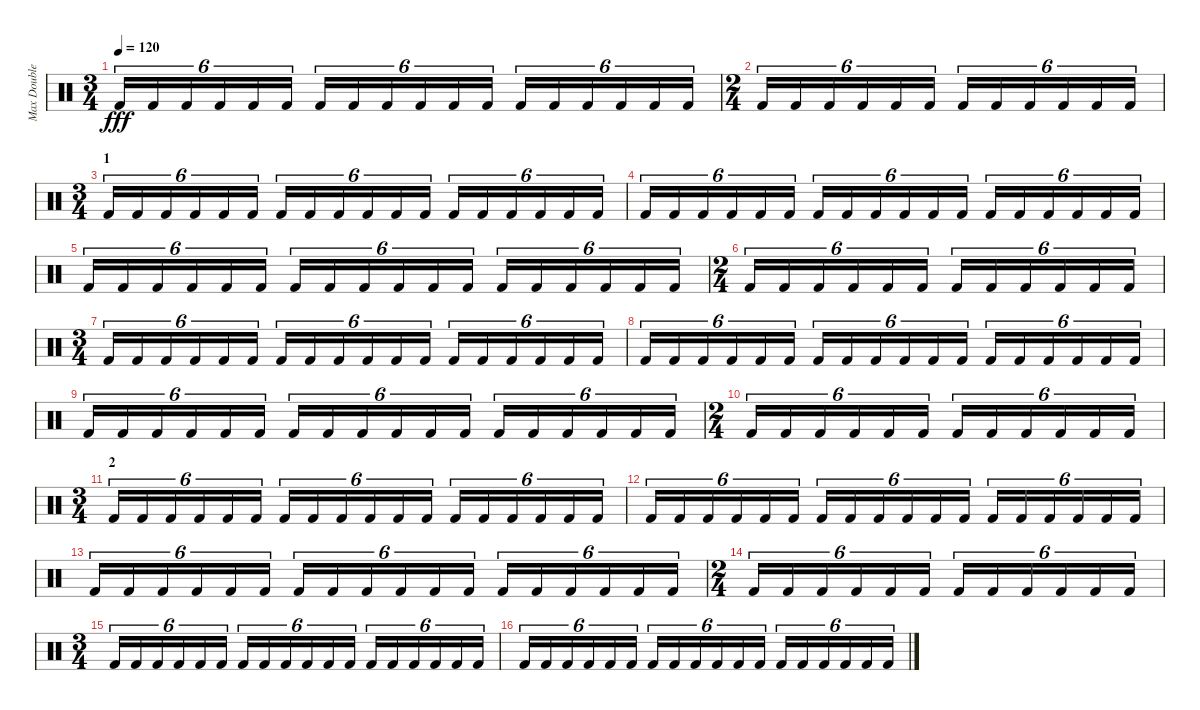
\track ("Max Double Pedal" "Max Double") {instrument percussion}
\staff {score}
\articulation defaults
\ts (3 4)
\tempo 120
\clef neutral
\ks c "Kick (hit) 2".16{tu (6 4) dy fff} "Kick (hit) 2".16{tu (6 4)} "Kick (hit) 2".16{tu (6 4)} "Kick (hit) 2".16{tu (6 4)} "Kick (hit) 2".16{tu (6 4)} "Kick (hit) 2".16{tu (6 4)} "Kick (hit) 2".16{tu (6 4)} "Kick (hit) 2".16{tu (6 4)} "Kick (hit) 2".16{tu (6 4)} "Kick (hit) 2".16{tu (6 4)} "Kick (hit) 2".16{tu (6 4)} "Kick (hit) 2".16{tu (6 4)} "Kick (hit) 2".16{tu (6 4)} "Kick (hit) 2".16{tu (6 4)} "Kick (hit) 2".16{tu (6 4)} "Kick (hit) 2".16{tu (6 4)} "Kick (hit) 2".16{tu (6 4)} "Kick (hit) 2".16{tu (6 4)}
|
\ts (2 4)
"Kick (hit) 2".16{tu (6 4)} "Kick (hit) 2".16{tu (6 4)} "Kick (hit) 2".16{tu (6 4)} "Kick (hit) 2".16{tu (6 4)} "Kick (hit) 2".16{tu (6 4)} "Kick (hit) 2".16{tu (6 4)} "Kick (hit) 2".16{tu (6 4)} "Kick (hit) 2".16{tu (6 4)} "Kick (hit) 2".16{tu (6 4)} "Kick (hit) 2".16{tu (6 4)} "Kick (hit) 2".16{tu (6 4)} "Kick (hit) 2".16{tu (6 4)} |
\ts (3 4)
\section ("" "1")
"Kick (hit) 2".16{tu (6 4)} "Kick (hit) 2".16{tu (6 4)} "Kick (hit) 2".16{tu (6 4)} "Kick (hit) 2".16{tu (6 4)} "Kick (hit) 2".16{tu (6 4)} "Kick (hit) 2".16{tu (6 4)} "Kick (hit) 2".16{tu (6 4)} "Kick (hit) 2".16{tu (6 4)} "Kick (hit) 2".16{tu (6 4)} "Kick (hit) 2".16{tu (6 4)} "Kick (hit) 2".16{tu (6 4)} "Kick (hit) 2".16{tu (6 4)} "Kick (hit) 2".16{tu (6 4)} "Kick (hit) 2".16{tu (6 4)} "Kick (hit) 2".16{tu (6 4)} "Kick (hit) 2".16{tu (6 4)} "Kick (hit) 2".16{tu (6 4)} "Kick (hit) 2".16{tu (6 4)} |
"Kick (hit) 2".16{tu (6 4)} "Kick (hit) 2".16{tu (6 4)} "Kick (hit) 2".16{tu (6 4)} "Kick (hit) 2".16{tu (6 4)} "Kick (hit) 2".16{tu (6 4)} "Kick (hit) 2".16{tu (6 4)} "Kick (hit) 2".16{tu (6 4)} "Kick (hit) 2".16{tu (6 4)} "Kick (hit) 2".16{tu (6 4)} "Kick (hit) 2".16{tu (6 4)} "Kick (hit) 2".16{tu (6 4)} "Kick (hit) 2".16{tu (6 4)} "Kick (hit) 2".16{tu (6 4)} "Kick (hit) 2".16{tu (6 4)} "Kick (hit) 2".16{tu (6 4)} "Kick (hit) 2".16{tu (6 4)} "Kick (hit) 2".16{tu (6 4)} "Kick (hit) 2".16{tu (6 4)} |
"Kick (hit) 2".16{tu (6 4)} "Kick (hit) 2".16{tu (6 4)} "Kick (hit) 2".16{tu (6 4)} "Kick (hit) 2".16{tu (6 4)} "Kick (hit) 2".16{tu (6 4)} "Kick (hit) 2".16{tu (6 4)} "Kick (hit) 2".16{tu (6 4)} "Kick (hit) 2".16{tu (6 4)} "Kick (hit) 2".16{tu (6 4)} "Kick (hit) 2".16{tu (6 4)} "Kick (hit) 2".16{tu (6 4)} "Kick (hit) 2".16{tu (6 4)} "Kick (hit) 2".16{tu (6 4)} "Kick (hit) 2".16{tu (6 4)} "Kick (hit) 2".16{tu (6 4)} "Kick (hit) 2".16{tu (6 4)} "Kick (hit) 2".16{tu (6 4)} "Kick (hit) 2".16{tu (6 4)} |
\ts (2 4)
"Kick (hit) 2".16{tu (6 4)} "Kick (hit) 2".16{tu (6 4)} "Kick (hit) 2".16{tu (6 4)} "Kick (hit) 2".16{tu (6 4)} "Kick (hit) 2".16{tu (6 4)} "Kick (hit) 2".16{tu (6 4)} "Kick (hit) 2".16{tu (6 4)} "Kick (hit) 2".16{tu (6 4)} "Kick (hit) 2".16{tu (6 4)} "Kick (hit) 2".16{tu (6 4)} "Kick (hit) 2".16{tu (6 4)} "Kick (hit) 2".16{tu (6 4)} |
\ts (3 4)
"Kick (hit) 2".16{tu (6 4)} "Kick (hit) 2".16{tu (6 4)} "Kick (hit) 2".16{tu (6 4)} "Kick (hit) 2".16{tu (6 4)} "Kick (hit) 2".16{tu (6 4)} "Kick (hit) 2".16{tu (6 4)} "Kick (hit) 2".16{tu (6 4)} "Kick (hit) 2".16{tu (6 4)} "Kick (hit) 2".16{tu (6 4)} "Kick (hit) 2".16{tu (6 4)} "Kick (hit) 2".16{tu (6 4)} "Kick (hit) 2".16{tu (6 4)} "Kick (hit) 2".16{tu (6 4)} "Kick (hit) 2".16{tu (6 4)} "Kick (hit) 2".16{tu (6 4)} "Kick (hit) 2".16{tu (6 4)} "Kick (hit) 2".16{tu (6 4)} "Kick (hit) 2".16{tu (6 4)} |
"Kick (hit) 2".16{tu (6 4)} "Kick (hit) 2".16{tu (6 4)} "Kick (hit) 2".16{tu (6 4)} "Kick (hit) 2".16{tu (6 4)} "Kick (hit) 2".16{tu (6 4)} "Kick (hit) 2".16{tu (6 4)} "Kick (hit) 2".16{tu (6 4)} "Kick (hit) 2".16{tu (6 4)} "Kick (hit) 2".16{tu (6 4)} "Kick (hit) 2".16{tu (6 4)} "Kick (hit) 2".16{tu (6 4)} "Kick (hit) 2".16{tu (6 4)} "Kick (hit) 2".16{tu (6 4)} "Kick (hit) 2".16{tu (6 4)} "Kick (hit) 2".16{tu (6 4)} "Kick (hit) 2".16{tu (6 4)} "Kick (hit) 2".16{tu (6 4)} "Kick (hit) 2".16{tu (6 4)} |
"Kick (hit) 2".16{tu (6 4)} "Kick (hit) 2".16{tu (6 4)} "Kick (hit) 2".16{tu (6 4)} "Kick (hit) 2".16{tu (6 4)} "Kick (hit) 2".16{tu (6 4)} "Kick (hit) 2".16{tu (6 4)} "Kick (hit) 2".16{tu (6 4)} "Kick (hit) 2".16{tu (6 4)} "Kick (hit) 2".16{tu (6 4)} "Kick (hit) 2".16{tu (6 4)} "Kick (hit) 2".16{tu (6 4)} "Kick (hit) 2".16{tu (6 4)} "Kick (hit) 2".16{tu (6 4)} "Kick (hit) 2".16{tu (6 4)} "Kick (hit) 2".16{tu (6 4)} "Kick (hit) 2".16{tu (6 4)} "Kick (hit) 2".16{tu (6 4)} "Kick (hit) 2".16{tu (6 4)} |
\ts (2 4)
"Kick (hit) 2".16{tu (6 4)} "Kick (hit) 2".16{tu (6 4)} "Kick (hit) 2".16{tu (6 4)} "Kick (hit) 2".16{tu (6 4)} "Kick (hit) 2".16{tu (6 4)} "Kick (hit) 2".16{tu (6 4)} "Kick (hit) 2".16{tu (6 4)} "Kick (hit) 2".16{tu (6 4)} "Kick (hit) 2".16{tu (6 4)} "Kick (hit) 2".16{tu (6 4)} "Kick (hit) 2".16{tu (6 4)} "Kick (hit) 2".16{tu (6 4)} |
\ts (3 4)
\section ("" "2")
"Kick (hit) 2".16{tu (6 4)} "Kick (hit) 2".16{tu (6 4)} "Kick (hit) 2".16{tu (6 4)} "Kick (hit) 2".16{tu (6 4)} "Kick (hit) 2".16{tu (6 4)} "Kick (hit) 2".16{tu (6 4)} "Kick (hit) 2".16{tu (6 4)} "Kick (hit) 2".16{tu (6 4)} "Kick (hit) 2".16{tu (6 4)} "Kick (hit) 2".16{tu (6 4)} "Kick (hit) 2".16{tu (6 4)} "Kick (hit) 2".16{tu (6 4)} "Kick (hit) 2".16{tu (6 4)} "Kick (hit) 2".16{tu (6 4)} "Kick (hit) 2".16{tu (6 4)} "Kick (hit) 2".16{tu (6 4)} "Kick (hit) 2".16{tu (6 4)} "Kick (hit) 2".16{tu (6 4)} |
"Kick (hit) 2".16{tu (6 4)} "Kick (hit) 2".16{tu (6 4)} "Kick (hit) 2".16{tu (6 4)} "Kick (hit) 2".16{tu (6 4)} "Kick (hit) 2".16{tu (6 4)} "Kick (hit) 2".16{tu (6 4)} "Kick (hit) 2".16{tu (6 4)} "Kick (hit) 2".16{tu (6 4)} "Kick (hit) 2".16{tu (6 4)} "Kick (hit) 2".16{tu (6 4)} "Kick (hit) 2".16{tu (6 4)} "Kick (hit) 2".16{tu (6 4)} "Kick (hit) 2".16{tu (6 4)} "Kick (hit) 2".16{tu (6 4)} "Kick (hit) 2".16{tu (6 4)} "Kick (hit) 2".16{tu (6 4)} "Kick (hit) 2".16{tu (6 4)} "Kick (hit) 2".16{tu (6 4)} |
"Kick (hit) 2".16{tu (6 4)} "Kick (hit) 2".16{tu (6 4)} "Kick (hit) 2".16{tu (6 4)} "Kick (hit) 2".16{tu (6 4)} "Kick (hit) 2".16{tu (6 4)} "Kick (hit) 2".16{tu (6 4)} "Kick (hit) 2".16{tu (6 4)} "Kick (hit) 2".16{tu (6 4)} "Kick (hit) 2".16{tu (6 4)} "Kick (hit) 2".16{tu (6 4)} "Kick (hit) 2".16{tu (6 4)} "Kick (hit) 2".16{tu (6 4)} "Kick (hit) 2".16{tu (6 4)} "Kick (hit) 2".16{tu (6 4)} "Kick (hit) 2".16{tu (6 4)} "Kick (hit) 2".16{tu (6 4)} "Kick (hit) 2".16{tu (6 4)} "Kick (hit) 2".16{tu (6 4)} |
\ts (2 4)
"Kick (hit) 2".16{tu (6 4)} "Kick (hit) 2".16{tu (6 4)} "Kick (hit) 2".16{tu (6 4)} "Kick (hit) 2".16{tu (6 4)} "Kick (hit) 2".16{tu (6 4)} "Kick (hit) 2".16{tu (6 4)} "Kick (hit) 2".16{tu (6 4)} "Kick (hit) 2".16{tu (6 4)} "Kick (hit) 2".16{tu (6 4)} "Kick (hit) 2".16{tu (6 4)} "Kick (hit) 2".16{tu (6 4)} "Kick (hit) 2".16{tu (6 4)} |
\ts (3 4)
"Kick (hit) 2".16{tu (6 4)} "Kick (hit) 2".16{tu (6 4)} "Kick (hit) 2".16{tu (6 4)} "Kick (hit) 2".16{tu (6 4)} "Kick (hit) 2".16{tu (6 4)} "Kick (hit) 2".16{tu (6 4)} "Kick (hit) 2".16{tu (6 4)} "Kick (hit) 2".16{tu (6 4)} "Kick (hit) 2".16{tu (6 4)} "Kick (hit) 2".16{tu (6 4)} "Kick (hit) 2".16{tu (6 4)} "Kick (hit) 2".16{tu (6 4)} "Kick (hit) 2".16{tu (6 4)} "Kick (hit) 2".16{tu (6 4)} "Kick (hit) 2".16{tu (6 4)} "Kick (hit) 2".16{tu (6 4)} "Kick (hit) 2".16{tu (6 4)} "Kick (hit) 2".16{tu (6 4)} |
"Kick (hit) 2".16{tu (6 4)} "Kick (hit) 2".16{tu (6 4)} "Kick (hit) 2".16{tu (6 4)} "Kick (hit) 2".16{tu (6 4)} "Kick (hit) 2".16{tu (6 4)} "Kick (hit) 2".16{tu (6 4)} "Kick (hit) 2".16{tu (6 4)} "Kick (hit) 2".16{tu (6 4)} "Kick (hit) 2".16{tu (6 4)} "Kick (hit) 2".16{tu (6 4)} "Kick (hit) 2".16{tu (6 4)} "Kick (hit) 2".16{tu (6 4)} "Kick (hit) 2".16{tu (6 4)} "Kick (hit) 2".16{tu (6 4)} "Kick (hit) 2".16{tu (6 4)} "Kick (hit) 2".16{tu (6 4)} "Kick (hit) 2".16{tu (6 4)} "Kick (hit) 2".16{tu (6 4)}
